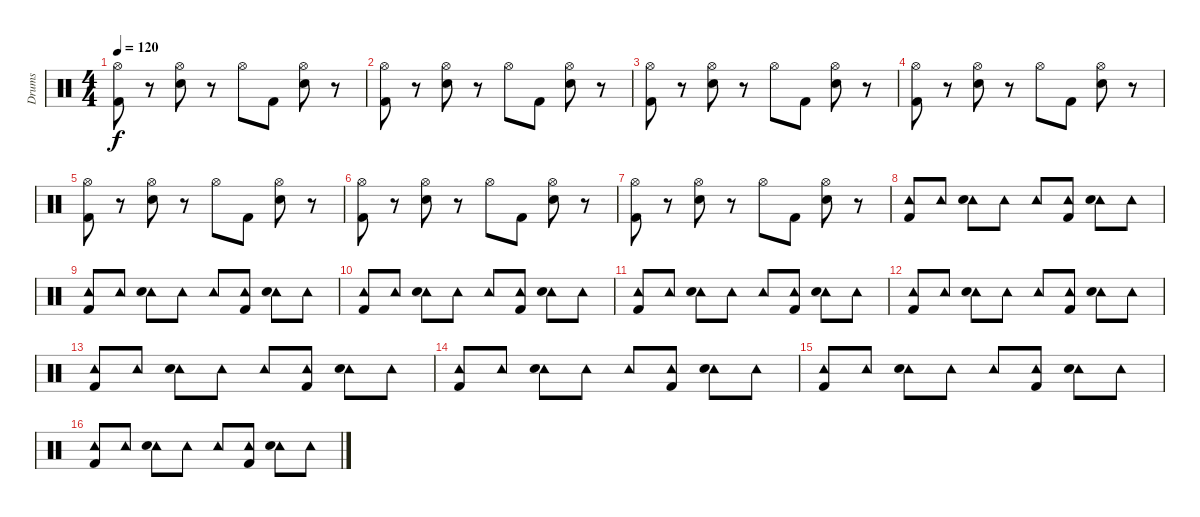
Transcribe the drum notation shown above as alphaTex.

\track ("Drums" "Drums") {instrument percussion}
\staff {score}
\articulation defaults
\ts (4 4)
\tempo 120
\clef neutral
\ks c
("Hi-Hat (open)" "Kick (hit) 2").8{dy f} r.8 ("Hi-Hat (open)" "Hand Clap (hit)").8 r.8 "Hi-Hat (open)".8 "Kick (hit) 2".8 ("Hi-Hat (open)" "Hand Clap (hit)").8 r.8 |
("Hi-Hat (open)" "Kick (hit) 2").8 r.8 ("Hi-Hat (open)" "Hand Clap (hit)").8 r.8 "Hi-Hat (open)".8 "Kick (hit) 2".8 ("Hi-Hat (open)" "Hand Clap (hit)").8 r.8 |
("Hi-Hat (open)" "Kick (hit) 2").8 r.8 ("Hi-Hat (open)" "Hand Clap (hit)").8 r.8 "Hi-Hat (open)".8 "Kick (hit) 2".8 ("Hi-Hat (open)" "Hand Clap (hit)").8 r.8 |
("Hi-Hat (open)" "Kick (hit) 2").8 r.8 ("Hi-Hat (open)" "Hand Clap (hit)").8 r.8 "Hi-Hat (open)".8 "Kick (hit) 2".8 ("Hi-Hat (open)" "Hand Clap (hit)").8 r.8 |
("Hi-Hat (open)" "Kick (hit) 2").8 r.8 ("Hi-Hat (open)" "Hand Clap (hit)").8 r.8 "Hi-Hat (open)".8 "Kick (hit) 2".8 ("Hi-Hat (open)" "Hand Clap (hit)").8 r.8 |
("Hi-Hat (open)" "Kick (hit) 2").8 r.8 ("Hi-Hat (open)" "Hand Clap (hit)").8 r.8 "Hi-Hat (open)".8 "Kick (hit) 2".8 ("Hi-Hat (open)" "Hand Clap (hit)").8 r.8 |
("Hi-Hat (open)" "Kick (hit) 2").8 r.8 ("Hi-Hat (open)" "Hand Clap (hit)").8 r.8 "Hi-Hat (open)".8 "Kick (hit) 2".8 ("Hi-Hat (open)" "Hand Clap (hit)").8 r.8 |
("Tambourine (hit)" "Kick (hit) 2").8 "Tambourine (hit)".8 ("Tambourine (hit)" "Hand Clap (hit)").8 "Tambourine (hit)".8 "Tambourine (hit)".8 ("Tambourine (hit)" "Kick (hit) 2").8 ("Tambourine (hit)" "Hand Clap (hit)").8 "Tambourine (hit)".8 |
("Tambourine (hit)" "Kick (hit) 2").8 "Tambourine (hit)".8 ("Tambourine (hit)" "Hand Clap (hit)").8 "Tambourine (hit)".8 "Tambourine (hit)".8 ("Tambourine (hit)" "Kick (hit) 2").8 ("Tambourine (hit)" "Hand Clap (hit)").8 "Tambourine (hit)".8 |
("Tambourine (hit)" "Kick (hit) 2").8 "Tambourine (hit)".8 ("Tambourine (hit)" "Hand Clap (hit)").8 "Tambourine (hit)".8 "Tambourine (hit)".8 ("Tambourine (hit)" "Kick (hit) 2").8 ("Tambourine (hit)" "Hand Clap (hit)").8 "Tambourine (hit)".8 |
("Tambourine (hit)" "Kick (hit) 2").8 "Tambourine (hit)".8 ("Tambourine (hit)" "Hand Clap (hit)").8 "Tambourine (hit)".8 "Tambourine (hit)".8 ("Tambourine (hit)" "Kick (hit) 2").8 ("Tambourine (hit)" "Hand Clap (hit)").8 "Tambourine (hit)".8 |
("Tambourine (hit)" "Kick (hit) 2").8 "Tambourine (hit)".8 ("Tambourine (hit)" "Hand Clap (hit)").8 "Tambourine (hit)".8 "Tambourine (hit)".8 ("Tambourine (hit)" "Kick (hit) 2").8 ("Tambourine (hit)" "Hand Clap (hit)").8 "Tambourine (hit)".8 |
("Tambourine (hit)" "Kick (hit) 2").8 "Tambourine (hit)".8 ("Tambourine (hit)" "Hand Clap (hit)").8 "Tambourine (hit)".8 "Tambourine (hit)".8 ("Tambourine (hit)" "Kick (hit) 2").8 ("Tambourine (hit)" "Hand Clap (hit)").8 "Tambourine (hit)".8 |
("Tambourine (hit)" "Kick (hit) 2").8 "Tambourine (hit)".8 ("Tambourine (hit)" "Hand Clap (hit)").8 "Tambourine (hit)".8 "Tambourine (hit)".8 ("Tambourine (hit)" "Kick (hit) 2").8 ("Tambourine (hit)" "Hand Clap (hit)").8 "Tambourine (hit)".8 |
("Tambourine (hit)" "Kick (hit) 2").8 "Tambourine (hit)".8 ("Tambourine (hit)" "Hand Clap (hit)").8 "Tambourine (hit)".8 "Tambourine (hit)".8 ("Tambourine (hit)" "Kick (hit) 2").8 ("Tambourine (hit)" "Hand Clap (hit)").8 "Tambourine (hit)".8 |
("Tambourine (hit)" "Kick (hit) 2").8 "Tambourine (hit)".8 ("Tambourine (hit)" "Hand Clap (hit)").8 "Tambourine (hit)".8 "Tambourine (hit)".8 ("Tambourine (hit)" "Kick (hit) 2").8 ("Tambourine (hit)" "Hand Clap (hit)").8 "Tambourine (hit)".8
